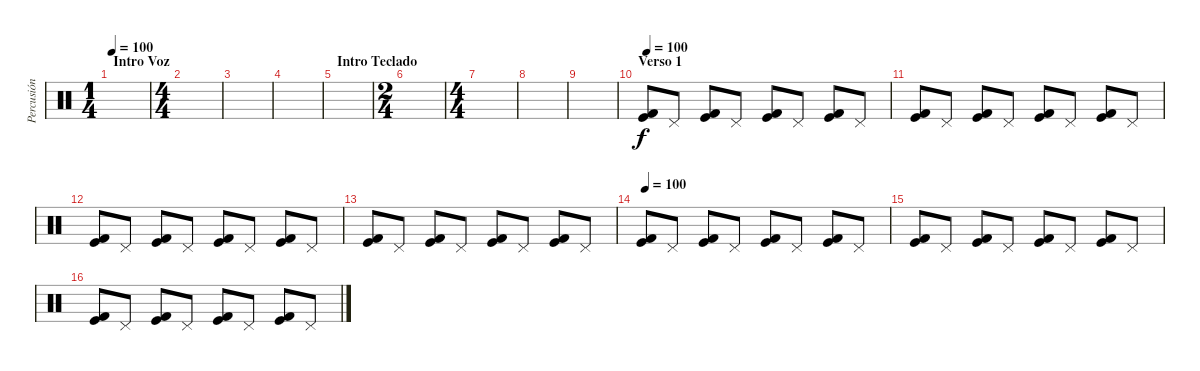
\track ("Percusión" "Percusión") {instrument percussion}
\staff {score}
\articulation defaults
\ts (1 4)
\section ("" "Intro Voz")
\tempo 100
\tempo 70
\tempo 100
\clef neutral
\ks c
|
\ts (4 4)
|
|
|
\section ("" "Intro Teclado")
|
\ts (2 4)
|
\ts (4 4)
|
|
|
\section ("" "Verso 1")
\tempo 100
("Kick (hit) 2" "Kick (hit)").8 "Pedal Hi-Hat (hit)".8 ("Kick (hit) 2" "Kick (hit)").8 "Pedal Hi-Hat (hit)".8 ("Kick (hit) 2" "Kick (hit)").8 "Pedal Hi-Hat (hit)".8 ("Kick (hit) 2" "Kick (hit)").8 "Pedal Hi-Hat (hit)".8 |
("Kick (hit) 2" "Kick (hit)").8 "Pedal Hi-Hat (hit)".8 ("Kick (hit) 2" "Kick (hit)").8 "Pedal Hi-Hat (hit)".8 ("Kick (hit) 2" "Kick (hit)").8 "Pedal Hi-Hat (hit)".8 ("Kick (hit) 2" "Kick (hit)").8 "Pedal Hi-Hat (hit)".8 |
("Kick (hit) 2" "Kick (hit)").8 "Pedal Hi-Hat (hit)".8 ("Kick (hit) 2" "Kick (hit)").8 "Pedal Hi-Hat (hit)".8 ("Kick (hit) 2" "Kick (hit)").8 "Pedal Hi-Hat (hit)".8 ("Kick (hit) 2" "Kick (hit)").8 "Pedal Hi-Hat (hit)".8 |
("Kick (hit) 2" "Kick (hit)").8 "Pedal Hi-Hat (hit)".8 ("Kick (hit) 2" "Kick (hit)").8 "Pedal Hi-Hat (hit)".8 ("Kick (hit) 2" "Kick (hit)").8 "Pedal Hi-Hat (hit)".8 ("Kick (hit) 2" "Kick (hit)").8 "Pedal Hi-Hat (hit)".8 |
\tempo 100
("Kick (hit) 2" "Kick (hit)").8 "Pedal Hi-Hat (hit)".8 ("Kick (hit) 2" "Kick (hit)").8 "Pedal Hi-Hat (hit)".8 ("Kick (hit) 2" "Kick (hit)").8 "Pedal Hi-Hat (hit)".8 ("Kick (hit) 2" "Kick (hit)").8 "Pedal Hi-Hat (hit)".8 |
("Kick (hit) 2" "Kick (hit)").8 "Pedal Hi-Hat (hit)".8 ("Kick (hit) 2" "Kick (hit)").8 "Pedal Hi-Hat (hit)".8 ("Kick (hit) 2" "Kick (hit)").8 "Pedal Hi-Hat (hit)".8 ("Kick (hit) 2" "Kick (hit)").8 "Pedal Hi-Hat (hit)".8 |
("Kick (hit) 2" "Kick (hit)").8 "Pedal Hi-Hat (hit)".8 ("Kick (hit) 2" "Kick (hit)").8 "Pedal Hi-Hat (hit)".8 ("Kick (hit) 2" "Kick (hit)").8 "Pedal Hi-Hat (hit)".8 ("Kick (hit) 2" "Kick (hit)").8 "Pedal Hi-Hat (hit)".8
